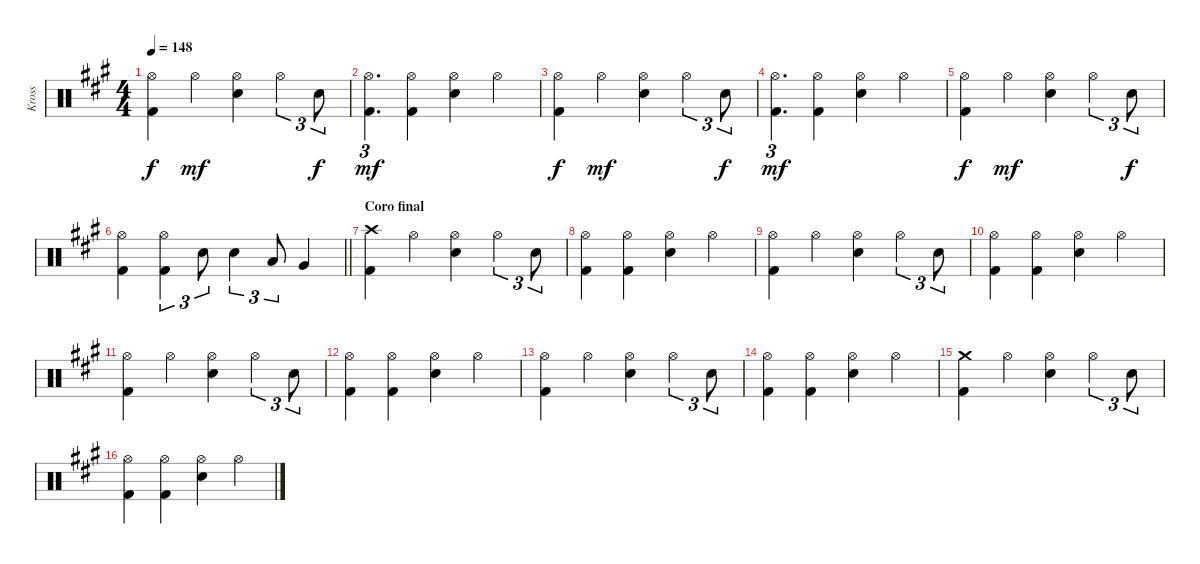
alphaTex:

\track ("Kross" "Kross") {instrument percussion}
\staff {score}
\articulation defaults
\ts (4 4)
\tempo 148
\clef neutral
\ks a
("Hi-Hat (open)" "Kick (hit) 2").4{dy f} "Hi-Hat (open)".4{dy mf} ("Hi-Hat (open)" "Electric Snare (hit)").4 "Hi-Hat (open)".4{tu (3 2)} "Electric Snare (hit)".8{tu (3 2) dy f} |
("Hi-Hat (open)" "Kick (hit) 2").4{d tu (3 2) dy mf} ("Hi-Hat (open)" "Kick (hit) 2").4 ("Hi-Hat (open)" "Electric Snare (hit)").4 "Hi-Hat (open)".4 |
("Hi-Hat (open)" "Kick (hit) 2").4{dy f} "Hi-Hat (open)".4{dy mf} ("Hi-Hat (open)" "Electric Snare (hit)").4 "Hi-Hat (open)".4{tu (3 2)} "Electric Snare (hit)".8{tu (3 2) dy f} |
("Hi-Hat (open)" "Kick (hit) 2").4{d tu (3 2) dy mf} ("Hi-Hat (open)" "Kick (hit) 2").4 ("Hi-Hat (open)" "Electric Snare (hit)").4 "Hi-Hat (open)".4 |
("Hi-Hat (open)" "Kick (hit) 2").4{dy f} "Hi-Hat (open)".4{dy mf} ("Hi-Hat (open)" "Electric Snare (hit)").4 "Hi-Hat (open)".4{tu (3 2)} "Electric Snare (hit)".8{tu (3 2) dy f} |
\barLineRight lightlight
("Hi-Hat (open)" "Kick (hit) 2").4 ("Hi-Hat (open)" "Kick (hit) 2").4{tu (3 2)} "Electric Snare (hit)".8{tu (3 2)} "Electric Snare (hit)".4{tu (3 2)} "Low Tom (hit)".8{tu (3 2)} "Very Low Tom (hit)".4 |
\section ("" "Coro final")
("Crash high (hit)" "Kick (hit) 2").4 "Hi-Hat (open)".4 ("Hi-Hat (open)" "Electric Snare (hit)").4 "Hi-Hat (open)".4{tu (3 2)} "Electric Snare (hit)".8{tu (3 2)} |
("Hi-Hat (open)" "Kick (hit) 2").4 ("Hi-Hat (open)" "Kick (hit) 2").4 ("Hi-Hat (open)" "Electric Snare (hit)").4 "Hi-Hat (open)".4 |
("Hi-Hat (open)" "Kick (hit) 2").4 "Hi-Hat (open)".4 ("Hi-Hat (open)" "Electric Snare (hit)").4 "Hi-Hat (open)".4{tu (3 2)} "Electric Snare (hit)".8{tu (3 2)} |
("Hi-Hat (open)" "Kick (hit) 2").4 ("Hi-Hat (open)" "Kick (hit) 2").4 ("Hi-Hat (open)" "Electric Snare (hit)").4 "Hi-Hat (open)".4 |
("Hi-Hat (open)" "Kick (hit) 2").4 "Hi-Hat (open)".4 ("Hi-Hat (open)" "Electric Snare (hit)").4 "Hi-Hat (open)".4{tu (3 2)} "Electric Snare (hit)".8{tu (3 2)} |
("Hi-Hat (open)" "Kick (hit) 2").4 ("Hi-Hat (open)" "Kick (hit) 2").4 ("Hi-Hat (open)" "Electric Snare (hit)").4 "Hi-Hat (open)".4 |
("Hi-Hat (open)" "Kick (hit) 2").4 "Hi-Hat (open)".4 ("Hi-Hat (open)" "Electric Snare (hit)").4 "Hi-Hat (open)".4{tu (3 2)} "Electric Snare (hit)".8{tu (3 2)} |
("Hi-Hat (open)" "Kick (hit) 2").4 ("Hi-Hat (open)" "Kick (hit) 2").4 ("Hi-Hat (open)" "Electric Snare (hit)").4 "Hi-Hat (open)".4 |
("Crash medium (hit)" "Kick (hit) 2").4 "Hi-Hat (open)".4 ("Hi-Hat (open)" "Electric Snare (hit)").4 "Hi-Hat (open)".4{tu (3 2)} "Electric Snare (hit)".8{tu (3 2)} |
("Hi-Hat (open)" "Kick (hit) 2").4 ("Hi-Hat (open)" "Kick (hit) 2").4 ("Hi-Hat (open)" "Electric Snare (hit)").4 "Hi-Hat (open)".4
